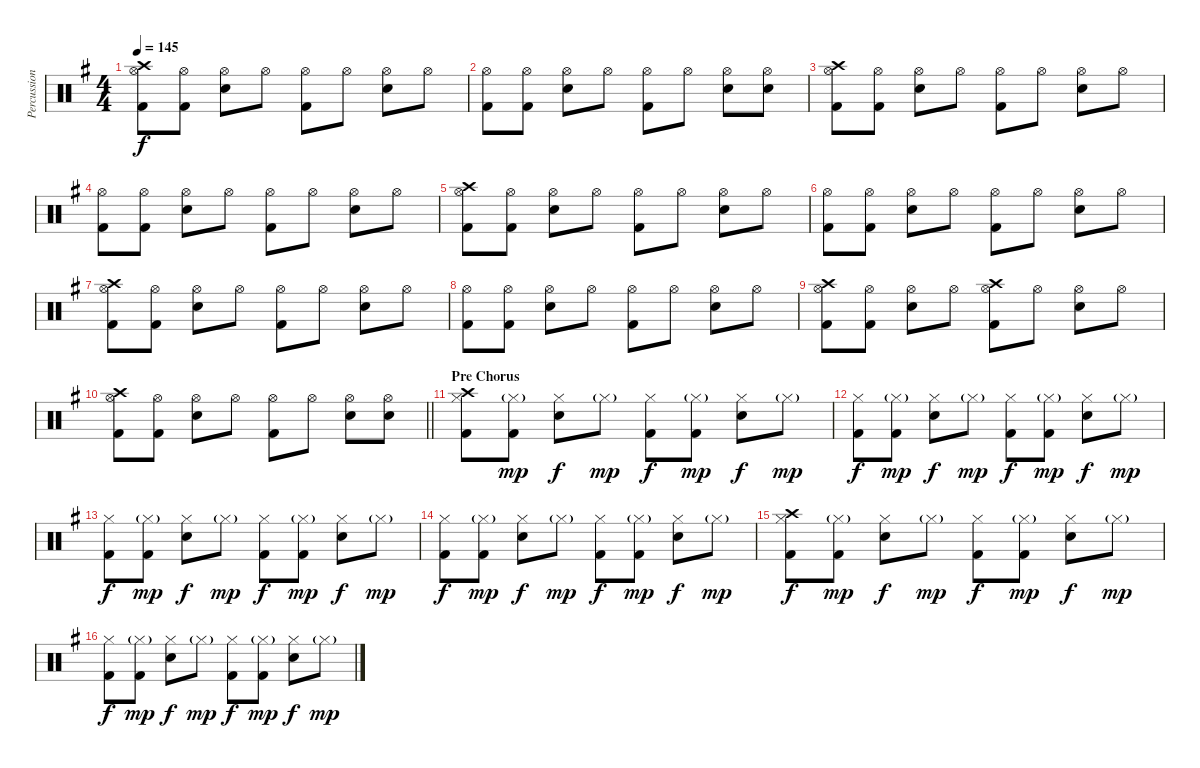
\track ("Percussion" "Percussion") {instrument percussion}
\staff {score}
\articulation defaults
\ts (4 4)
\tempo 145
\clef neutral
\ks eminor
("Crash high (hit)" "Hi-Hat (open)" "Kick (hit) 2").8{dy f} ("Hi-Hat (open)" "Kick (hit) 2").8 ("Hi-Hat (open)" "Electric Snare (hit)").8 "Hi-Hat (open)".8 ("Hi-Hat (open)" "Kick (hit) 2").8 "Hi-Hat (open)".8 ("Hi-Hat (open)" "Electric Snare (hit)").8 "Hi-Hat (open)".8 |
("Hi-Hat (open)" "Kick (hit) 2").8 ("Hi-Hat (open)" "Kick (hit) 2").8 ("Hi-Hat (open)" "Electric Snare (hit)").8 "Hi-Hat (open)".8 ("Hi-Hat (open)" "Kick (hit) 2").8 "Hi-Hat (open)".8 ("Hi-Hat (open)" "Electric Snare (hit)").8 ("Hi-Hat (open)" "Electric Snare (hit)").8 |
("Crash high (hit)" "Hi-Hat (open)" "Kick (hit) 2").8 ("Hi-Hat (open)" "Kick (hit) 2").8 ("Hi-Hat (open)" "Electric Snare (hit)").8 "Hi-Hat (open)".8 ("Hi-Hat (open)" "Kick (hit) 2").8 "Hi-Hat (open)".8 ("Hi-Hat (open)" "Electric Snare (hit)").8 "Hi-Hat (open)".8 |
("Hi-Hat (open)" "Kick (hit) 2").8 ("Hi-Hat (open)" "Kick (hit) 2").8 ("Hi-Hat (open)" "Electric Snare (hit)").8 "Hi-Hat (open)".8 ("Hi-Hat (open)" "Kick (hit) 2").8 "Hi-Hat (open)".8 ("Hi-Hat (open)" "Electric Snare (hit)").8 "Hi-Hat (open)".8 |
("Crash high (hit)" "Hi-Hat (open)" "Kick (hit) 2").8 ("Hi-Hat (open)" "Kick (hit) 2").8 ("Hi-Hat (open)" "Electric Snare (hit)").8 "Hi-Hat (open)".8 ("Hi-Hat (open)" "Kick (hit) 2").8 "Hi-Hat (open)".8 ("Hi-Hat (open)" "Electric Snare (hit)").8 "Hi-Hat (open)".8 |
("Hi-Hat (open)" "Kick (hit) 2").8 ("Hi-Hat (open)" "Kick (hit) 2").8 ("Hi-Hat (open)" "Electric Snare (hit)").8 "Hi-Hat (open)".8 ("Hi-Hat (open)" "Kick (hit) 2").8 "Hi-Hat (open)".8 ("Hi-Hat (open)" "Electric Snare (hit)").8 "Hi-Hat (open)".8 |
("Crash high (hit)" "Hi-Hat (open)" "Kick (hit) 2").8 ("Hi-Hat (open)" "Kick (hit) 2").8 ("Hi-Hat (open)" "Electric Snare (hit)").8 "Hi-Hat (open)".8 ("Hi-Hat (open)" "Kick (hit) 2").8 "Hi-Hat (open)".8 ("Hi-Hat (open)" "Electric Snare (hit)").8 "Hi-Hat (open)".8 |
("Hi-Hat (open)" "Kick (hit) 2").8 ("Hi-Hat (open)" "Kick (hit) 2").8 ("Hi-Hat (open)" "Electric Snare (hit)").8 "Hi-Hat (open)".8 ("Hi-Hat (open)" "Kick (hit) 2").8 "Hi-Hat (open)".8 ("Hi-Hat (open)" "Electric Snare (hit)").8 "Hi-Hat (open)".8 |
("Crash high (hit)" "Hi-Hat (open)" "Kick (hit) 2").8 ("Hi-Hat (open)" "Kick (hit) 2").8 ("Hi-Hat (open)" "Electric Snare (hit)").8 "Hi-Hat (open)".8 ("Crash high (hit)" "Hi-Hat (open)" "Kick (hit) 2").8 "Hi-Hat (open)".8 ("Hi-Hat (open)" "Electric Snare (hit)").8 "Hi-Hat (open)".8 |
\barLineRight lightlight
("Crash high (hit)" "Hi-Hat (open)" "Kick (hit) 2").8 ("Hi-Hat (open)" "Kick (hit) 2").8 ("Hi-Hat (open)" "Electric Snare (hit)").8 "Hi-Hat (open)".8 ("Hi-Hat (open)" "Kick (hit) 2").8 "Hi-Hat (open)".8 ("Hi-Hat (open)" "Electric Snare (hit)").8 ("Hi-Hat (open)" "Electric Snare (hit)").8 |
\section ("" "Pre Chorus")
("Crash high (hit)" "Hi-Hat (closed)" "Kick (hit) 2").8 ("Hi-Hat (closed)"{g} "Kick (hit) 2").8{dy mp} ("Hi-Hat (closed)" "Electric Snare (hit)").8{dy f} "Hi-Hat (closed)"{g}.8{dy mp} ("Hi-Hat (closed)" "Kick (hit) 2").8{dy f} ("Hi-Hat (closed)"{g} "Kick (hit) 2").8{dy mp} ("Hi-Hat (closed)" "Electric Snare (hit)").8{dy f} "Hi-Hat (closed)"{g}.8{dy mp} |
("Hi-Hat (closed)" "Kick (hit) 2").8{dy f} ("Hi-Hat (closed)"{g} "Kick (hit) 2").8{dy mp} ("Hi-Hat (closed)" "Electric Snare (hit)").8{dy f} "Hi-Hat (closed)"{g}.8{dy mp} ("Hi-Hat (closed)" "Kick (hit) 2").8{dy f} ("Hi-Hat (closed)"{g} "Kick (hit) 2").8{dy mp} ("Hi-Hat (closed)" "Electric Snare (hit)").8{dy f} "Hi-Hat (closed)"{g}.8{dy mp} |
("Hi-Hat (closed)" "Kick (hit) 2").8{dy f} ("Hi-Hat (closed)"{g} "Kick (hit) 2").8{dy mp} ("Hi-Hat (closed)" "Electric Snare (hit)").8{dy f} "Hi-Hat (closed)"{g}.8{dy mp} ("Hi-Hat (closed)" "Kick (hit) 2").8{dy f} ("Hi-Hat (closed)"{g} "Kick (hit) 2").8{dy mp} ("Hi-Hat (closed)" "Electric Snare (hit)").8{dy f} "Hi-Hat (closed)"{g}.8{dy mp} |
("Hi-Hat (closed)" "Kick (hit) 2").8{dy f} ("Hi-Hat (closed)"{g} "Kick (hit) 2").8{dy mp} ("Hi-Hat (closed)" "Electric Snare (hit)").8{dy f} "Hi-Hat (closed)"{g}.8{dy mp} ("Hi-Hat (closed)" "Kick (hit) 2").8{dy f} ("Hi-Hat (closed)"{g} "Kick (hit) 2").8{dy mp} ("Hi-Hat (closed)" "Electric Snare (hit)").8{dy f} "Hi-Hat (closed)"{g}.8{dy mp} |
("Crash high (hit)" "Hi-Hat (closed)" "Kick (hit) 2").8{dy f} ("Hi-Hat (closed)"{g} "Kick (hit) 2").8{dy mp} ("Hi-Hat (closed)" "Electric Snare (hit)").8{dy f} "Hi-Hat (closed)"{g}.8{dy mp} ("Hi-Hat (closed)" "Kick (hit) 2").8{dy f} ("Hi-Hat (closed)"{g} "Kick (hit) 2").8{dy mp} ("Hi-Hat (closed)" "Electric Snare (hit)").8{dy f} "Hi-Hat (closed)"{g}.8{dy mp} |
("Hi-Hat (closed)" "Kick (hit) 2").8{dy f} ("Hi-Hat (closed)"{g} "Kick (hit) 2").8{dy mp} ("Hi-Hat (closed)" "Electric Snare (hit)").8{dy f} "Hi-Hat (closed)"{g}.8{dy mp} ("Hi-Hat (closed)" "Kick (hit) 2").8{dy f} ("Hi-Hat (closed)"{g} "Kick (hit) 2").8{dy mp} ("Hi-Hat (closed)" "Electric Snare (hit)").8{dy f} "Hi-Hat (closed)"{g}.8{dy mp}
